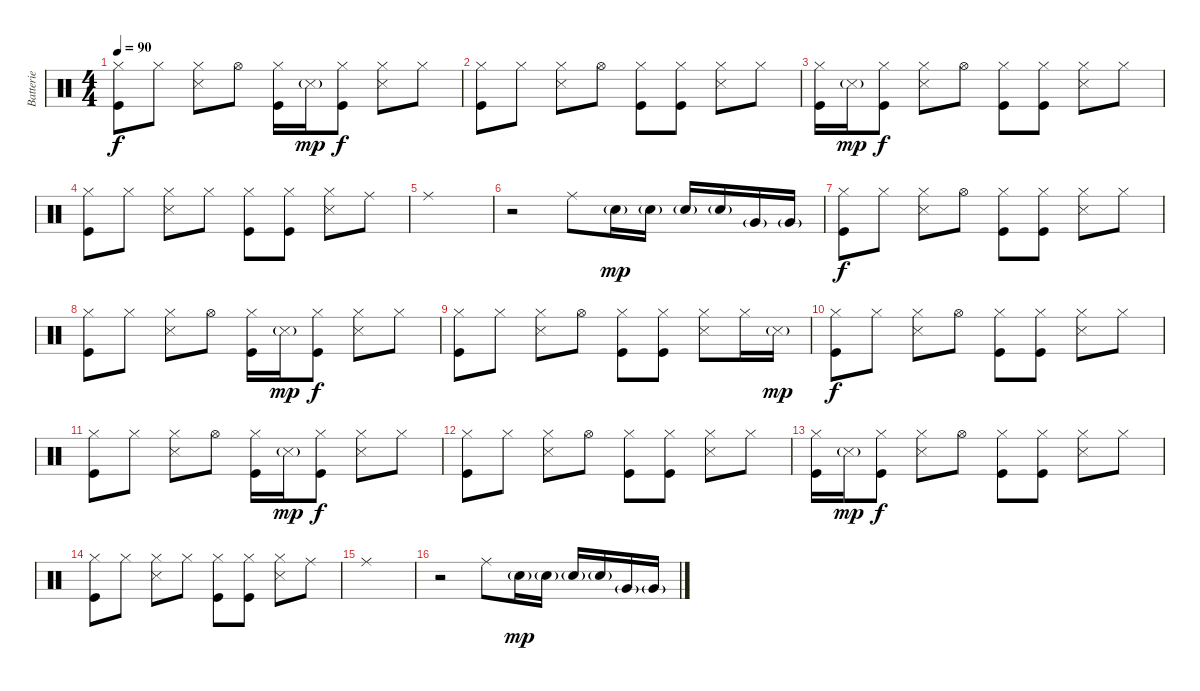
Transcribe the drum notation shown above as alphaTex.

\track ("Batterie" "Batterie") {instrument percussion}
\staff {score}
\articulation defaults
\ts (4 4)
\tempo 90
\clef neutral
\ks c
("Hi-Hat (closed)" "Kick (hit)").8{dy f} "Hi-Hat (closed)".8 ("Hi-Hat (closed)" "Snare (side stick) 3").8 "Hi-Hat (open)".8 ("Hi-Hat (closed)" "Kick (hit)").16 "Snare (side stick) 3"{g}.16{dy mp} ("Hi-Hat (closed)" "Kick (hit)").8{dy f} ("Hi-Hat (closed)" "Snare (side stick) 3").8 "Hi-Hat (closed)".8 |
("Hi-Hat (closed)" "Kick (hit)").8 "Hi-Hat (closed)".8 ("Hi-Hat (closed)" "Snare (side stick) 3").8 "Hi-Hat (open)".8 ("Hi-Hat (closed)" "Kick (hit)").8 ("Hi-Hat (closed)" "Kick (hit)").8 ("Hi-Hat (closed)" "Snare (side stick) 3").8 "Hi-Hat (closed)".8 |
("Hi-Hat (closed)" "Kick (hit)").16 "Snare (side stick) 3"{g}.16{dy mp} ("Hi-Hat (closed)" "Kick (hit)").8{dy f} ("Hi-Hat (closed)" "Snare (side stick) 3").8 "Hi-Hat (open)".8 ("Hi-Hat (closed)" "Kick (hit)").8 ("Hi-Hat (closed)" "Kick (hit)").8 ("Hi-Hat (closed)" "Snare (side stick) 3").8 "Hi-Hat (closed)".8 |
("Hi-Hat (closed)" "Kick (hit)").8 "Hi-Hat (closed)".8 ("Hi-Hat (closed)" "Snare (side stick) 3").8 "Hi-Hat (closed)".8 ("Hi-Hat (closed)" "Kick (hit)").8 ("Hi-Hat (closed)" "Kick (hit)").8 ("Hi-Hat (closed)" "Snare (side stick) 3").8 "Ride (middle)".8 |
"Ride (middle)".1 |
r.2 "Ride (middle)".8 "Snare (hit) 2"{g}.16{dy mp} "Snare (hit) 2"{g}.16 "Snare (hit) 2"{g}.16 "Snare (hit) 2"{g}.16 "Very Low Tom (hit)"{g}.16 "Very Low Tom (hit)"{g}.16 |
\section ("" "")
("Hi-Hat (closed)" "Kick (hit)").8{dy f} "Hi-Hat (closed)".8 ("Hi-Hat (closed)" "Snare (side stick) 3").8 "Hi-Hat (open)".8 ("Hi-Hat (closed)" "Kick (hit)").8 ("Hi-Hat (closed)" "Kick (hit)").8 ("Hi-Hat (closed)" "Snare (side stick) 3").8 "Hi-Hat (closed)".8 |
("Hi-Hat (closed)" "Kick (hit)").8 "Hi-Hat (closed)".8 ("Hi-Hat (closed)" "Snare (side stick) 3").8 "Hi-Hat (open)".8 ("Hi-Hat (closed)" "Kick (hit)").16 "Snare (side stick) 3"{g}.16{dy mp} ("Hi-Hat (closed)" "Kick (hit)").8{dy f} ("Hi-Hat (closed)" "Snare (side stick) 3").8 "Hi-Hat (closed)".8 |
("Hi-Hat (closed)" "Kick (hit)").8 "Hi-Hat (closed)".8 ("Hi-Hat (closed)" "Snare (side stick) 3").8 "Hi-Hat (open)".8 ("Hi-Hat (closed)" "Kick (hit)").8 ("Hi-Hat (closed)" "Kick (hit)").8 ("Hi-Hat (closed)" "Snare (side stick) 3").8 "Hi-Hat (closed)".16 "Snare (side stick) 3"{g}.16{dy mp} |
("Hi-Hat (closed)" "Kick (hit)").8{dy f} "Hi-Hat (closed)".8 ("Hi-Hat (closed)" "Snare (side stick) 3").8 "Hi-Hat (open)".8 ("Hi-Hat (closed)" "Kick (hit)").8 ("Hi-Hat (closed)" "Kick (hit)").8 ("Hi-Hat (closed)" "Snare (side stick) 3").8 "Hi-Hat (closed)".8 |
("Hi-Hat (closed)" "Kick (hit)").8 "Hi-Hat (closed)".8 ("Hi-Hat (closed)" "Snare (side stick) 3").8 "Hi-Hat (open)".8 ("Hi-Hat (closed)" "Kick (hit)").16 "Snare (side stick) 3"{g}.16{dy mp} ("Hi-Hat (closed)" "Kick (hit)").8{dy f} ("Hi-Hat (closed)" "Snare (side stick) 3").8 "Hi-Hat (closed)".8 |
("Hi-Hat (closed)" "Kick (hit)").8 "Hi-Hat (closed)".8 ("Hi-Hat (closed)" "Snare (side stick) 3").8 "Hi-Hat (open)".8 ("Hi-Hat (closed)" "Kick (hit)").8 ("Hi-Hat (closed)" "Kick (hit)").8 ("Hi-Hat (closed)" "Snare (side stick) 3").8 "Hi-Hat (closed)".8 |
("Hi-Hat (closed)" "Kick (hit)").16 "Snare (side stick) 3"{g}.16{dy mp} ("Hi-Hat (closed)" "Kick (hit)").8{dy f} ("Hi-Hat (closed)" "Snare (side stick) 3").8 "Hi-Hat (open)".8 ("Hi-Hat (closed)" "Kick (hit)").8 ("Hi-Hat (closed)" "Kick (hit)").8 ("Hi-Hat (closed)" "Snare (side stick) 3").8 "Hi-Hat (closed)".8 |
("Hi-Hat (closed)" "Kick (hit)").8 "Hi-Hat (closed)".8 ("Hi-Hat (closed)" "Snare (side stick) 3").8 "Hi-Hat (closed)".8 ("Hi-Hat (closed)" "Kick (hit)").8 ("Hi-Hat (closed)" "Kick (hit)").8 ("Hi-Hat (closed)" "Snare (side stick) 3").8 "Ride (middle)".8 |
"Ride (middle)".1 |
r.2 "Ride (middle)".8 "Snare (hit) 2"{g}.16{dy mp} "Snare (hit) 2"{g}.16 "Snare (hit) 2"{g}.16 "Snare (hit) 2"{g}.16 "Very Low Tom (hit)"{g}.16 "Very Low Tom (hit)"{g}.16
